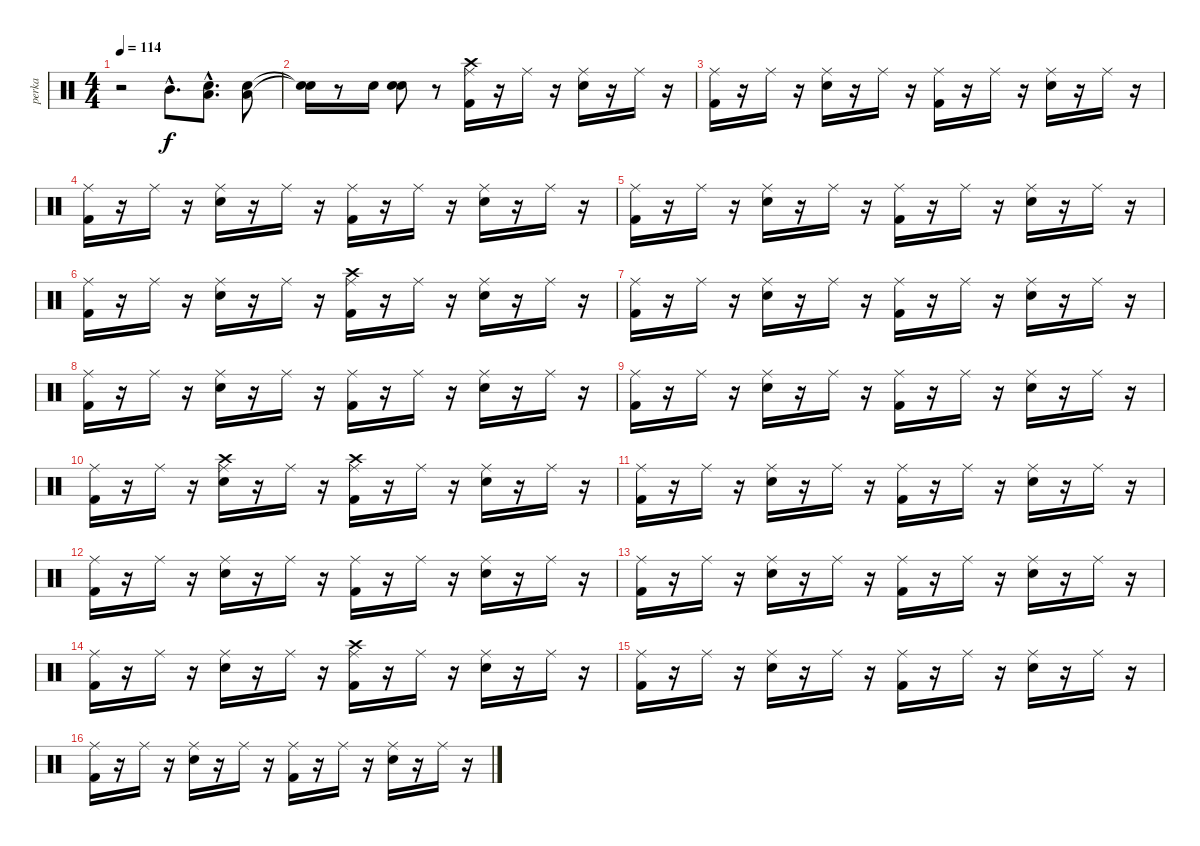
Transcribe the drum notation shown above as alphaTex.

\track ("perka" "perka") {instrument percussion}
\staff {score}
\articulation defaults
\ts (4 4)
\tempo 114
\clef neutral
\ks c
r.2{dy f} "Mid Tom (hit)"{hac}.8{d} ("Snare (hit)"{hac} "Low Tom (hit)"{hac}).8{d} ("Snare (hit)" "Low Floor Tom (hit)").8 |
("Snare (hit)"{t} "Snare (hit)"{t}).16 r.8 "Snare (hit) 2".16 ("Snare (hit)" "Snare (hit) 2").8 r.8 ("Kick (hit) 2" "Ride (middle)" "Crash high (hit)").16 r.16 "Ride (middle)".16 r.16 ("Snare (hit) 2" "Ride (middle)").16 r.16 "Ride (middle)".16 r.16 |
("Kick (hit) 2" "Ride (middle)").16 r.16 "Ride (middle)".16 r.16 ("Snare (hit) 2" "Ride (middle)").16 r.16 "Ride (middle)".16 r.16 ("Kick (hit) 2" "Ride (middle)").16 r.16 "Ride (middle)".16 r.16 ("Snare (hit) 2" "Ride (middle)").16 r.16 "Ride (middle)".16 r.16 |
("Kick (hit) 2" "Ride (middle)").16 r.16 "Ride (middle)".16 r.16 ("Snare (hit) 2" "Ride (middle)").16 r.16 "Ride (middle)".16 r.16 ("Kick (hit) 2" "Ride (middle)").16 r.16 "Ride (middle)".16 r.16 ("Snare (hit) 2" "Ride (middle)").16 r.16 "Ride (middle)".16 r.16 |
("Kick (hit) 2" "Ride (middle)").16 r.16 "Ride (middle)".16 r.16 ("Snare (hit) 2" "Ride (middle)").16 r.16 "Ride (middle)".16 r.16 ("Kick (hit) 2" "Ride (middle)").16 r.16 "Ride (middle)".16 r.16 ("Snare (hit) 2" "Ride (middle)").16 r.16 "Ride (middle)".16 r.16 |
("Kick (hit) 2" "Ride (middle)").16 r.16 "Ride (middle)".16 r.16 ("Snare (hit) 2" "Ride (middle)").16 r.16 "Ride (middle)".16 r.16 ("Crash high (hit)" "Kick (hit) 2" "Ride (middle)").16 r.16 "Ride (middle)".16 r.16 ("Snare (hit) 2" "Ride (middle)").16 r.16 "Ride (middle)".16 r.16 |
("Kick (hit) 2" "Ride (middle)").16 r.16 "Ride (middle)".16 r.16 ("Snare (hit) 2" "Ride (middle)").16 r.16 "Ride (middle)".16 r.16 ("Kick (hit) 2" "Ride (middle)").16 r.16 "Ride (middle)".16 r.16 ("Snare (hit) 2" "Ride (middle)").16 r.16 "Ride (middle)".16 r.16 |
("Kick (hit) 2" "Ride (middle)").16 r.16 "Ride (middle)".16 r.16 ("Snare (hit) 2" "Ride (middle)").16 r.16 "Ride (middle)".16 r.16 ("Kick (hit) 2" "Ride (middle)").16 r.16 "Ride (middle)".16 r.16 ("Snare (hit) 2" "Ride (middle)").16 r.16 "Ride (middle)".16 r.16 |
("Kick (hit) 2" "Ride (middle)").16 r.16 "Ride (middle)".16 r.16 ("Snare (hit) 2" "Ride (middle)").16 r.16 "Ride (middle)".16 r.16 ("Kick (hit) 2" "Ride (middle)").16 r.16 "Ride (middle)".16 r.16 ("Snare (hit) 2" "Ride (middle)").16 r.16 "Ride (middle)".16 r.16 |
("Kick (hit) 2" "Ride (middle)").16 r.16 "Ride (middle)".16 r.16 ("Crash high (hit)" "Snare (hit) 2" "Ride (middle)").16 r.16 "Ride (middle)".16 r.16 ("Crash high (hit)" "Kick (hit) 2" "Ride (middle)").16 r.16 "Ride (middle)".16 r.16 ("Snare (hit) 2" "Ride (middle)").16 r.16 "Ride (middle)".16 r.16 |
("Kick (hit) 2" "Ride (middle)").16 r.16 "Ride (middle)".16 r.16 ("Snare (hit) 2" "Ride (middle)").16 r.16 "Ride (middle)".16 r.16 ("Kick (hit) 2" "Ride (middle)").16 r.16 "Ride (middle)".16 r.16 ("Snare (hit) 2" "Ride (middle)").16 r.16 "Ride (middle)".16 r.16 |
("Kick (hit) 2" "Ride (middle)").16 r.16 "Ride (middle)".16 r.16 ("Snare (hit) 2" "Ride (middle)").16 r.16 "Ride (middle)".16 r.16 ("Kick (hit) 2" "Ride (middle)").16 r.16 "Ride (middle)".16 r.16 ("Snare (hit) 2" "Ride (middle)").16 r.16 "Ride (middle)".16 r.16 |
("Kick (hit) 2" "Ride (middle)").16 r.16 "Ride (middle)".16 r.16 ("Snare (hit) 2" "Ride (middle)").16 r.16 "Ride (middle)".16 r.16 ("Kick (hit) 2" "Ride (middle)").16 r.16 "Ride (middle)".16 r.16 ("Snare (hit) 2" "Ride (middle)").16 r.16 "Ride (middle)".16 r.16 |
("Kick (hit) 2" "Ride (middle)").16 r.16 "Ride (middle)".16 r.16 ("Snare (hit) 2" "Ride (middle)").16 r.16 "Ride (middle)".16 r.16 ("Crash high (hit)" "Kick (hit) 2" "Ride (middle)").16 r.16 "Ride (middle)".16 r.16 ("Snare (hit) 2" "Ride (middle)").16 r.16 "Ride (middle)".16 r.16 |
("Kick (hit) 2" "Ride (middle)").16 r.16 "Ride (middle)".16 r.16 ("Snare (hit) 2" "Ride (middle)").16 r.16 "Ride (middle)".16 r.16 ("Kick (hit) 2" "Ride (middle)").16 r.16 "Ride (middle)".16 r.16 ("Snare (hit) 2" "Ride (middle)").16 r.16 "Ride (middle)".16 r.16 |
("Kick (hit) 2" "Ride (middle)").16 r.16 "Ride (middle)".16 r.16 ("Snare (hit) 2" "Ride (middle)").16 r.16 "Ride (middle)".16 r.16 ("Kick (hit) 2" "Ride (middle)").16 r.16 "Ride (middle)".16 r.16 ("Snare (hit) 2" "Ride (middle)").16 r.16 "Ride (middle)".16 r.16
